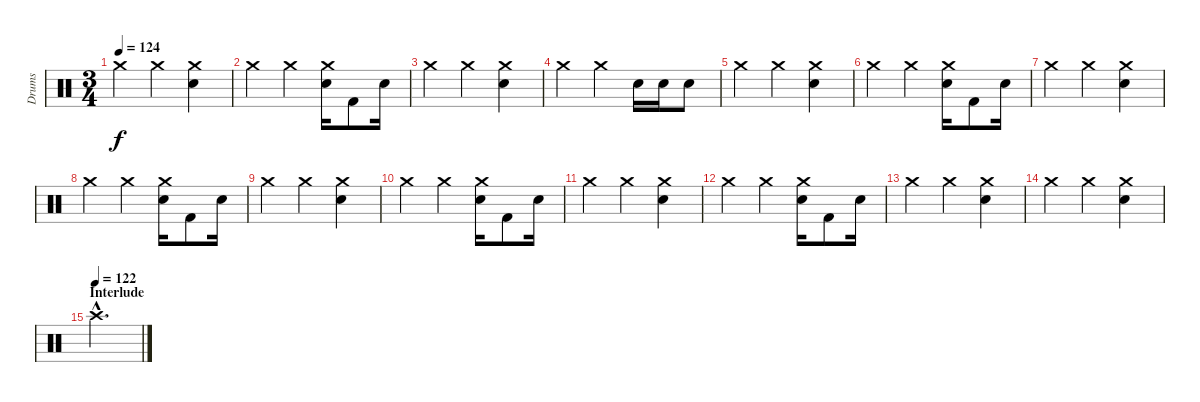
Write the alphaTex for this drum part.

\track ("Drums" "Drums") {instrument percussion}
\staff {score}
\articulation defaults
\ts (3 4)
\tempo 124
\clef neutral
\ks c "Crash medium (hit)".4{dy f} "Crash medium (hit)".4
("Electric Snare (hit)" "Crash medium (hit)").4 |
"Crash medium (hit)".4 "Crash medium (hit)".4 ("Electric Snare (hit)" "Crash medium (hit)").16 "Kick (hit) 2".8 "Electric Snare (hit)".16 |
"Crash medium (hit)".4 "Crash medium (hit)".4 ("Electric Snare (hit)" "Crash medium (hit)").4 |
"Crash medium (hit)".4 "Crash medium (hit)".4 "Electric Snare (hit)".16 "Electric Snare (hit)".16 "Electric Snare (hit)".8 |
"Crash medium (hit)".4 "Crash medium (hit)".4 ("Electric Snare (hit)" "Crash medium (hit)").4 |
"Crash medium (hit)".4 "Crash medium (hit)".4 ("Electric Snare (hit)" "Crash medium (hit)").16 "Kick (hit) 2".8 "Electric Snare (hit)".16 |
"Crash medium (hit)".4 "Crash medium (hit)".4 ("Electric Snare (hit)" "Crash medium (hit)").4 |
"Crash medium (hit)".4 "Crash medium (hit)".4 ("Electric Snare (hit)" "Crash medium (hit)").16 "Kick (hit) 2".8 "Electric Snare (hit)".16 |
"Crash medium (hit)".4 "Crash medium (hit)".4 ("Electric Snare (hit)" "Crash medium (hit)").4 |
"Crash medium (hit)".4 "Crash medium (hit)".4 ("Electric Snare (hit)" "Crash medium (hit)").16 "Kick (hit) 2".8 "Electric Snare (hit)".16 |
"Crash medium (hit)".4 "Crash medium (hit)".4 ("Electric Snare (hit)" "Crash medium (hit)").4 |
"Crash medium (hit)".4 "Crash medium (hit)".4 ("Electric Snare (hit)" "Crash medium (hit)").16 "Kick (hit) 2".8 "Electric Snare (hit)".16 |
"Crash medium (hit)".4 "Crash medium (hit)".4 ("Electric Snare (hit)" "Crash medium (hit)").4 |
"Crash medium (hit)".4 "Crash medium (hit)".4 ("Electric Snare (hit)" "Crash medium (hit)").4 |
\section ("" "Interlude")
\tempo (122)
"Crash high (hit)"{hac}.2{d}
